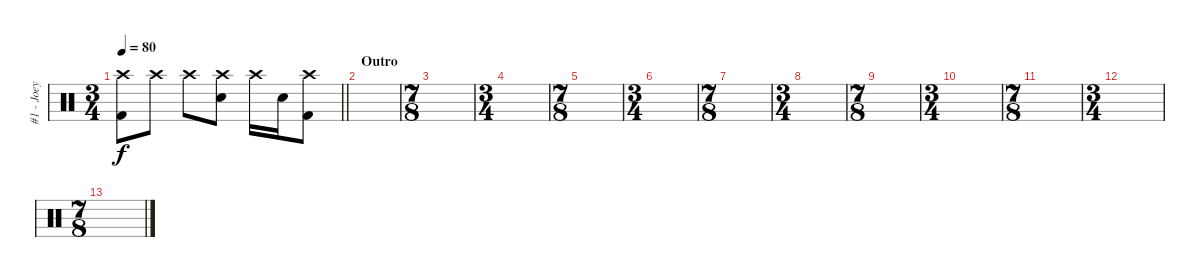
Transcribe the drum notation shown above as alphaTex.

\track ("#1 - Joey Jordison" "#1 - Joey ") {instrument percussion}
\staff {score}
\articulation defaults
\ts (3 4)
\tempo 80
\clef neutral
\barLineRight lightlight
\ks c
("Crash high (hit)" "Kick (hit) 2").8{dy f} "Crash high (hit)".8 "Crash high (hit)".8 ("Crash high (hit)" "Snare (hit) 2").8 "Crash high (hit)".16 "Snare (hit) 2".16 ("Crash high (hit)" "Kick (hit) 2").8 |
\section ("" "Outro")
|
\ts (7 8)
|
\ts (3 4)
|
\ts (7 8)
|
\ts (3 4)
|
\ts (7 8)
|
\ts (3 4)
|
\ts (7 8)
|
\ts (3 4)
|
\ts (7 8)
|
\ts (3 4)
|
\ts (7 8)
